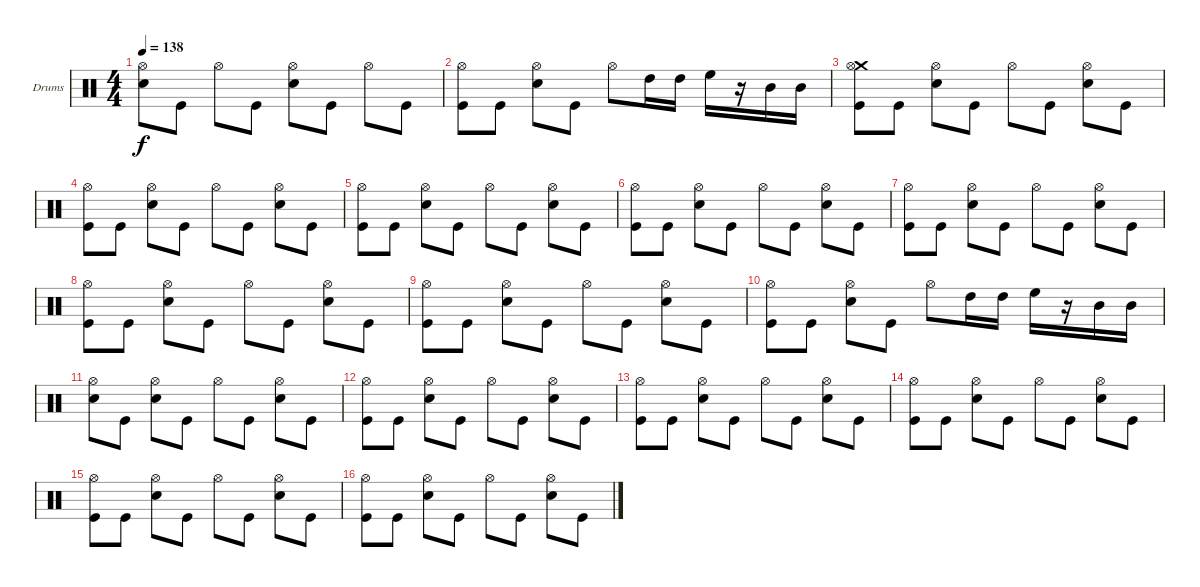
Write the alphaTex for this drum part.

\bracketExtendMode groupsimilarinstruments
\firstSystemTrackNameOrientation horizontal
\otherSystemsTrackNameOrientation horizontal
\track ("Drumkit" "Drums") {instrument percussion}
\staff {score}
\articulation defaults
\ts (4 4)
\tempo 138
\clef neutral
\ks c
("Snare (hit) 2" "Hi-Hat (open)").8{dy f} "Kick (hit)".8 "Hi-Hat (open)".8 "Kick (hit)".8 ("Snare (hit) 2" "Hi-Hat (open)").8 "Kick (hit)".8 "Hi-Hat (open)".8 "Kick (hit)".8 |
("Hi-Hat (open)" "Kick (hit)").8 "Kick (hit)".8 ("Snare (hit) 2" "Hi-Hat (open)").8 "Kick (hit)".8 "Hi-Hat (open)".8 "High Tom (hit)".16 "High Tom (hit)".16 "High Floor Tom (hit)".16 r.16 "Mid Tom (hit)".16 "Mid Tom (hit)".16 |
("Crash medium (hit)" "Hi-Hat (open)" "Kick (hit)").8 "Kick (hit)".8 ("Snare (hit) 2" "Hi-Hat (open)").8 "Kick (hit)".8 "Hi-Hat (open)".8 "Kick (hit)".8 ("Snare (hit) 2" "Hi-Hat (open)").8 "Kick (hit)".8 |
("Hi-Hat (open)" "Kick (hit)").8 "Kick (hit)".8 ("Snare (hit) 2" "Hi-Hat (open)").8 "Kick (hit)".8 "Hi-Hat (open)".8 "Kick (hit)".8 ("Snare (hit) 2" "Hi-Hat (open)").8 "Kick (hit)".8 |
("Hi-Hat (open)" "Kick (hit)").8 "Kick (hit)".8 ("Snare (hit) 2" "Hi-Hat (open)").8 "Kick (hit)".8 "Hi-Hat (open)".8 "Kick (hit)".8 ("Snare (hit) 2" "Hi-Hat (open)").8 "Kick (hit)".8 |
("Hi-Hat (open)" "Kick (hit)").8 "Kick (hit)".8 ("Snare (hit) 2" "Hi-Hat (open)").8 "Kick (hit)".8 "Hi-Hat (open)".8 "Kick (hit)".8 ("Snare (hit) 2" "Hi-Hat (open)").8 "Kick (hit)".8 |
("Hi-Hat (open)" "Kick (hit)").8 "Kick (hit)".8 ("Snare (hit) 2" "Hi-Hat (open)").8 "Kick (hit)".8 "Hi-Hat (open)".8 "Kick (hit)".8 ("Snare (hit) 2" "Hi-Hat (open)").8 "Kick (hit)".8 |
("Hi-Hat (open)" "Kick (hit)").8 "Kick (hit)".8 ("Snare (hit) 2" "Hi-Hat (open)").8 "Kick (hit)".8 "Hi-Hat (open)".8 "Kick (hit)".8 ("Snare (hit) 2" "Hi-Hat (open)").8 "Kick (hit)".8 |
("Hi-Hat (open)" "Kick (hit)").8 "Kick (hit)".8 ("Snare (hit) 2" "Hi-Hat (open)").8 "Kick (hit)".8 "Hi-Hat (open)".8 "Kick (hit)".8 ("Snare (hit) 2" "Hi-Hat (open)").8 "Kick (hit)".8 |
("Hi-Hat (open)" "Kick (hit)").8 "Kick (hit)".8 ("Snare (hit) 2" "Hi-Hat (open)").8 "Kick (hit)".8 "Hi-Hat (open)".8 "High Tom (hit)".16 "High Tom (hit)".16 "High Floor Tom (hit)".16 r.16 "Mid Tom (hit)".16 "Mid Tom (hit)".16 |
("Snare (hit) 2" "Hi-Hat (open)").8 "Kick (hit)".8 ("Snare (hit) 2" "Hi-Hat (open)").8 "Kick (hit)".8 "Hi-Hat (open)".8 "Kick (hit)".8 ("Snare (hit) 2" "Hi-Hat (open)").8 "Kick (hit)".8 |
("Hi-Hat (open)" "Kick (hit)").8 "Kick (hit)".8 ("Snare (hit) 2" "Hi-Hat (open)").8 "Kick (hit)".8 "Hi-Hat (open)".8 "Kick (hit)".8 ("Snare (hit) 2" "Hi-Hat (open)").8 "Kick (hit)".8 |
("Hi-Hat (open)" "Kick (hit)").8 "Kick (hit)".8 ("Snare (hit) 2" "Hi-Hat (open)").8 "Kick (hit)".8 "Hi-Hat (open)".8 "Kick (hit)".8 ("Snare (hit) 2" "Hi-Hat (open)").8 "Kick (hit)".8 |
("Hi-Hat (open)" "Kick (hit)").8 "Kick (hit)".8 ("Snare (hit) 2" "Hi-Hat (open)").8 "Kick (hit)".8 "Hi-Hat (open)".8 "Kick (hit)".8 ("Snare (hit) 2" "Hi-Hat (open)").8 "Kick (hit)".8 |
("Hi-Hat (open)" "Kick (hit)").8 "Kick (hit)".8 ("Snare (hit) 2" "Hi-Hat (open)").8 "Kick (hit)".8 "Hi-Hat (open)".8 "Kick (hit)".8 ("Snare (hit) 2" "Hi-Hat (open)").8 "Kick (hit)".8 |
("Hi-Hat (open)" "Kick (hit)").8 "Kick (hit)".8 ("Snare (hit) 2" "Hi-Hat (open)").8 "Kick (hit)".8 "Hi-Hat (open)".8 "Kick (hit)".8 ("Snare (hit) 2" "Hi-Hat (open)").8 "Kick (hit)".8
